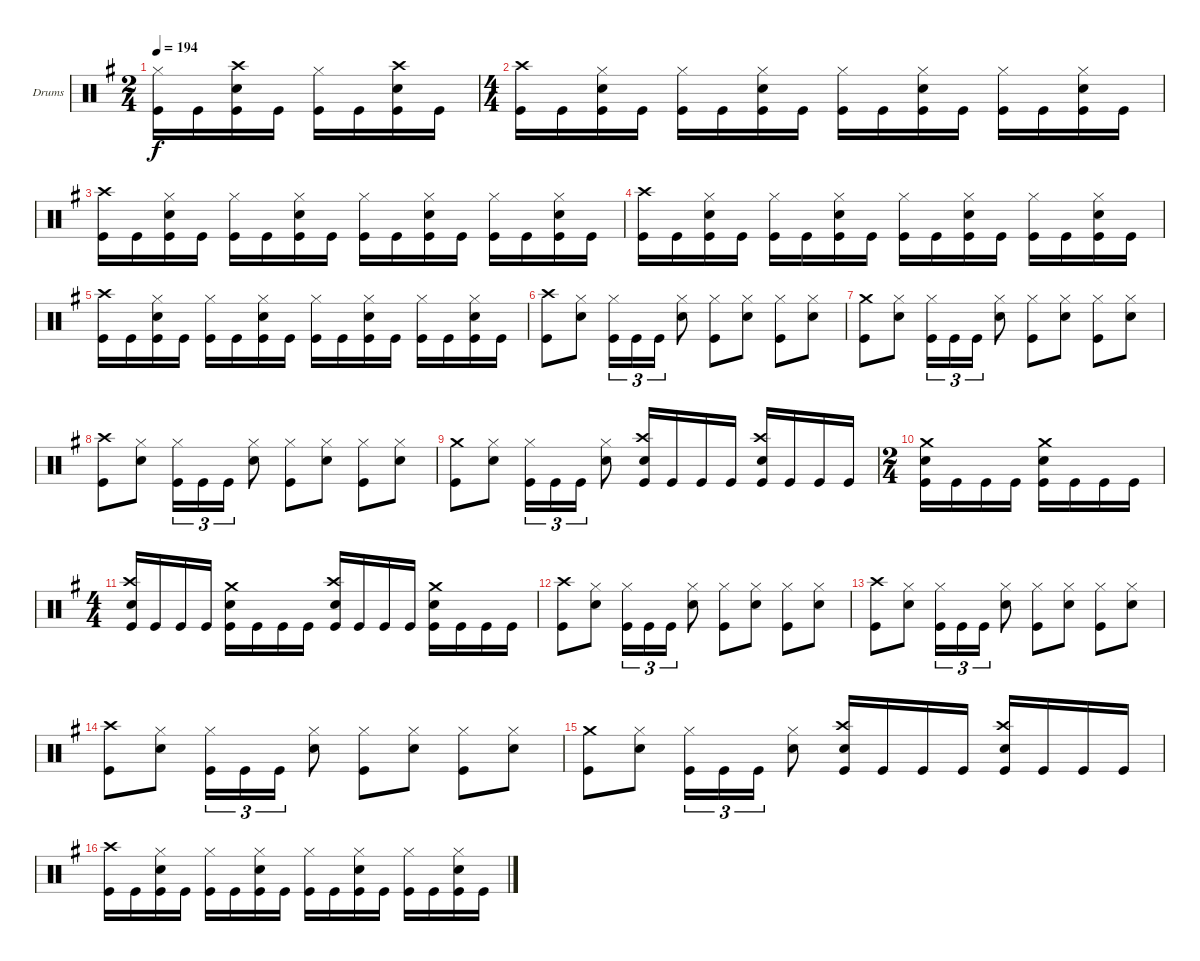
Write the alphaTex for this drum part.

\bracketExtendMode groupsimilarinstruments
\firstSystemTrackNameOrientation horizontal
\otherSystemsTrackNameOrientation horizontal
\track ("Drumkit" "Drums") {instrument percussion}
\staff {score}
\articulation defaults
\ts (2 4)
\tempo 194
\clef neutral
\scale
1.07314
\ks g
("Hi-Hat (closed)" "Kick (hit)").16{dy f} "Kick (hit)".16 ("Crash high (hit)" "Snare (hit) 2" "Kick (hit)").16 "Kick (hit)".16 ("Hi-Hat (closed)" "Kick (hit)").16 "Kick (hit)".16 ("Crash high (hit)" "Snare (hit) 2" "Kick (hit)").16 "Kick (hit)".16 |
\ts (4 4)
\scale
0.92686 ("Crash high (hit)" "Kick (hit)").16 "Kick (hit)".16 ("Hi-Hat (closed)" "Snare (hit) 2" "Kick (hit)").16 "Kick (hit)".16 ("Hi-Hat (closed)" "Kick (hit)").16 "Kick (hit)".16 ("Hi-Hat (closed)" "Snare (hit) 2" "Kick (hit)").16 "Kick (hit)".16 ("Hi-Hat (closed)" "Kick (hit)").16 "Kick (hit)".16 ("Hi-Hat (closed)" "Snare (hit) 2" "Kick (hit)").16 "Kick (hit)".16 ("Hi-Hat (closed)" "Kick (hit)").16 "Kick (hit)".16 ("Hi-Hat (closed)" "Snare (hit) 2" "Kick (hit)").16 "Kick (hit)".16 |
\scale
1.04288 ("Crash high (hit)" "Kick (hit)").16 "Kick (hit)".16 ("Hi-Hat (closed)" "Snare (hit) 2" "Kick (hit)").16 "Kick (hit)".16 ("Hi-Hat (closed)" "Kick (hit)").16 "Kick (hit)".16 ("Hi-Hat (closed)" "Snare (hit) 2" "Kick (hit)").16 "Kick (hit)".16 ("Hi-Hat (closed)" "Kick (hit)").16 "Kick (hit)".16 ("Hi-Hat (closed)" "Snare (hit) 2" "Kick (hit)").16 "Kick (hit)".16 ("Hi-Hat (closed)" "Kick (hit)").16 "Kick (hit)".16 ("Hi-Hat (closed)" "Snare (hit) 2" "Kick (hit)").16 "Kick (hit)".16 |
\scale
0.957125 ("Crash high (hit)" "Kick (hit)").16 "Kick (hit)".16 ("Hi-Hat (closed)" "Snare (hit) 2" "Kick (hit)").16 "Kick (hit)".16 ("Hi-Hat (closed)" "Kick (hit)").16 "Kick (hit)".16 ("Hi-Hat (closed)" "Snare (hit) 2" "Kick (hit)").16 "Kick (hit)".16 ("Hi-Hat (closed)" "Kick (hit)").16 "Kick (hit)".16 ("Hi-Hat (closed)" "Snare (hit) 2" "Kick (hit)").16 "Kick (hit)".16 ("Hi-Hat (closed)" "Kick (hit)").16 "Kick (hit)".16 ("Hi-Hat (closed)" "Snare (hit) 2" "Kick (hit)").16 "Kick (hit)".16 |
\scale
1.04288 ("Crash high (hit)" "Kick (hit)").16 "Kick (hit)".16 ("Hi-Hat (closed)" "Snare (hit) 2" "Kick (hit)").16 "Kick (hit)".16 ("Hi-Hat (closed)" "Kick (hit)").16 "Kick (hit)".16 ("Hi-Hat (closed)" "Snare (hit) 2" "Kick (hit)").16 "Kick (hit)".16 ("Hi-Hat (closed)" "Kick (hit)").16 "Kick (hit)".16 ("Hi-Hat (closed)" "Snare (hit) 2" "Kick (hit)").16 "Kick (hit)".16 ("Hi-Hat (closed)" "Kick (hit)").16 "Kick (hit)".16 ("Hi-Hat (closed)" "Snare (hit) 2" "Kick (hit)").16 "Kick (hit)".16 |
\scale
0.957125 ("Crash high (hit)" "Kick (hit)").8 ("Hi-Hat (closed)" "Snare (hit) 2").8 ("Hi-Hat (closed)" "Kick (hit)").16{tu (3 2)} "Kick (hit)".16{tu (3 2)} "Kick (hit)".16{tu (3 2)} ("Hi-Hat (closed)" "Snare (hit) 2").8 ("Hi-Hat (closed)" "Kick (hit)").8 ("Hi-Hat (closed)" "Snare (hit) 2").8 ("Hi-Hat (closed)" "Kick (hit)").8 ("Hi-Hat (closed)" "Snare (hit) 2").8 |
\scale
1.04288 ("Crash medium (hit)" "Kick (hit)").8 ("Hi-Hat (closed)" "Snare (hit) 2").8 ("Hi-Hat (closed)" "Kick (hit)").16{tu (3 2)} "Kick (hit)".16{tu (3 2)} "Kick (hit)".16{tu (3 2)} ("Hi-Hat (closed)" "Snare (hit) 2").8 ("Hi-Hat (closed)" "Kick (hit)").8 ("Hi-Hat (closed)" "Snare (hit) 2").8 ("Hi-Hat (closed)" "Kick (hit)").8 ("Hi-Hat (closed)" "Snare (hit) 2").8 |
\scale
0.957125 ("Crash high (hit)" "Kick (hit)").8 ("Hi-Hat (closed)" "Snare (hit) 2").8 ("Hi-Hat (closed)" "Kick (hit)").16{tu (3 2)} "Kick (hit)".16{tu (3 2)} "Kick (hit)".16{tu (3 2)} ("Hi-Hat (closed)" "Snare (hit) 2").8 ("Hi-Hat (closed)" "Kick (hit)").8 ("Hi-Hat (closed)" "Snare (hit) 2").8 ("Hi-Hat (closed)" "Kick (hit)").8 ("Hi-Hat (closed)" "Snare (hit) 2").8 |
\scale
1.04288 ("Crash medium (hit)" "Kick (hit)").8 ("Hi-Hat (closed)" "Snare (hit) 2").8 ("Hi-Hat (closed)" "Kick (hit)").16{tu (3 2)} "Kick (hit)".16{tu (3 2)} "Kick (hit)".16{tu (3 2)} ("Hi-Hat (closed)" "Snare (hit) 2").8 ("Crash high (hit)" "Snare (hit) 2" "Kick (hit)").16 "Kick (hit)".16 "Kick (hit)".16 "Kick (hit)".16 ("Crash high (hit)" "Snare (hit) 2" "Kick (hit)").16 "Kick (hit)".16 "Kick (hit)".16 "Kick (hit)".16 |
\ts (2 4)
\scale
0.957125 ("Crash medium (hit)" "Snare (hit) 2" "Kick (hit)").16 "Kick (hit)".16 "Kick (hit)".16 "Kick (hit)".16 ("Crash medium (hit)" "Snare (hit) 2" "Kick (hit)").16 "Kick (hit)".16 "Kick (hit)".16 "Kick (hit)".16 |
\ts (4 4)
\scale
1.07314 ("Crash high (hit)" "Snare (hit) 2" "Kick (hit)").16 "Kick (hit)".16 "Kick (hit)".16 "Kick (hit)".16 ("Crash medium (hit)" "Snare (hit) 2" "Kick (hit)").16 "Kick (hit)".16 "Kick (hit)".16 "Kick (hit)".16 ("Crash high (hit)" "Snare (hit) 2" "Kick (hit)").16 "Kick (hit)".16 "Kick (hit)".16 "Kick (hit)".16 ("Crash medium (hit)" "Snare (hit) 2" "Kick (hit)").16 "Kick (hit)".16 "Kick (hit)".16 "Kick (hit)".16 |
\scale
0.92686 ("Crash high (hit)" "Kick (hit)").8 ("Hi-Hat (closed)" "Snare (hit) 2").8 ("Hi-Hat (closed)" "Kick (hit)").16{tu (3 2)} "Kick (hit)".16{tu (3 2)} "Kick (hit)".16{tu (3 2)} ("Hi-Hat (closed)" "Snare (hit) 2").8 ("Hi-Hat (closed)" "Kick (hit)").8 ("Hi-Hat (closed)" "Snare (hit) 2").8 ("Hi-Hat (closed)" "Kick (hit)").8 ("Hi-Hat (closed)" "Snare (hit) 2").8 |
\scale
1.04288 ("Crash high (hit)" "Kick (hit)").8 ("Hi-Hat (closed)" "Snare (hit) 2").8 ("Hi-Hat (closed)" "Kick (hit)").16{tu (3 2)} "Kick (hit)".16{tu (3 2)} "Kick (hit)".16{tu (3 2)} ("Hi-Hat (closed)" "Snare (hit) 2").8 ("Hi-Hat (closed)" "Kick (hit)").8 ("Hi-Hat (closed)" "Snare (hit) 2").8 ("Hi-Hat (closed)" "Kick (hit)").8 ("Hi-Hat (closed)" "Snare (hit) 2").8 |
\scale
0.957125 ("Crash high (hit)" "Kick (hit)").8 ("Hi-Hat (closed)" "Snare (hit) 2").8 ("Hi-Hat (closed)" "Kick (hit)").16{tu (3 2)} "Kick (hit)".16{tu (3 2)} "Kick (hit)".16{tu (3 2)} ("Hi-Hat (closed)" "Snare (hit) 2").8 ("Hi-Hat (closed)" "Kick (hit)").8 ("Hi-Hat (closed)" "Snare (hit) 2").8 ("Hi-Hat (closed)" "Kick (hit)").8 ("Hi-Hat (closed)" "Snare (hit) 2").8 |
\scale
1.04288 ("Crash medium (hit)" "Kick (hit)").8 ("Hi-Hat (closed)" "Snare (hit) 2").8 ("Hi-Hat (closed)" "Kick (hit)").16{tu (3 2)} "Kick (hit)".16{tu (3 2)} "Kick (hit)".16{tu (3 2)} ("Hi-Hat (closed)" "Snare (hit) 2").8 ("Crash high (hit)" "Snare (hit) 2" "Kick (hit)").16 "Kick (hit)".16 "Kick (hit)".16 "Kick (hit)".16 ("Crash high (hit)" "Snare (hit) 2" "Kick (hit)").16 "Kick (hit)".16 "Kick (hit)".16 "Kick (hit)".16 |
\scale
0.957125 ("Crash high (hit)" "Kick (hit)").16 "Kick (hit)".16 ("Hi-Hat (closed)" "Snare (hit) 2" "Kick (hit)").16 "Kick (hit)".16 ("Hi-Hat (closed)" "Kick (hit)").16 "Kick (hit)".16 ("Hi-Hat (closed)" "Snare (hit) 2" "Kick (hit)").16 "Kick (hit)".16 ("Hi-Hat (closed)" "Kick (hit)").16 "Kick (hit)".16 ("Hi-Hat (closed)" "Snare (hit) 2" "Kick (hit)").16 "Kick (hit)".16 ("Hi-Hat (closed)" "Kick (hit)").16 "Kick (hit)".16 ("Hi-Hat (closed)" "Snare (hit) 2" "Kick (hit)").16 "Kick (hit)".16
